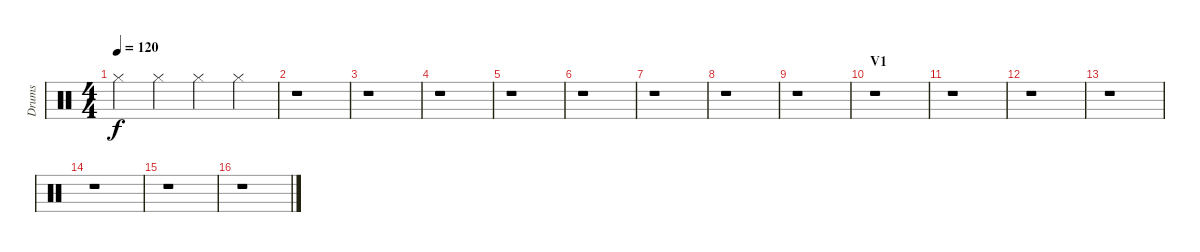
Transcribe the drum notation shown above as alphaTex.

\track ("Drums" "Drums") {instrument percussion}
\staff {score}
\articulation defaults
\ts (4 4)
\tempo 120
\clef neutral
\ks c "Hi-Hat (closed)".4{dy f} "Hi-Hat (closed)".4 "Hi-Hat (closed)".4 "Hi-Hat (closed)".4
|
r.1 |
r.1 |
r.1 |
r.1 |
r.1 |
r.1 |
r.1 |
r.1 |
\section ("" "V1")
r.1 |
r.1 |
r.1 |
r.1 |
r.1 |
r.1 |
r.1
